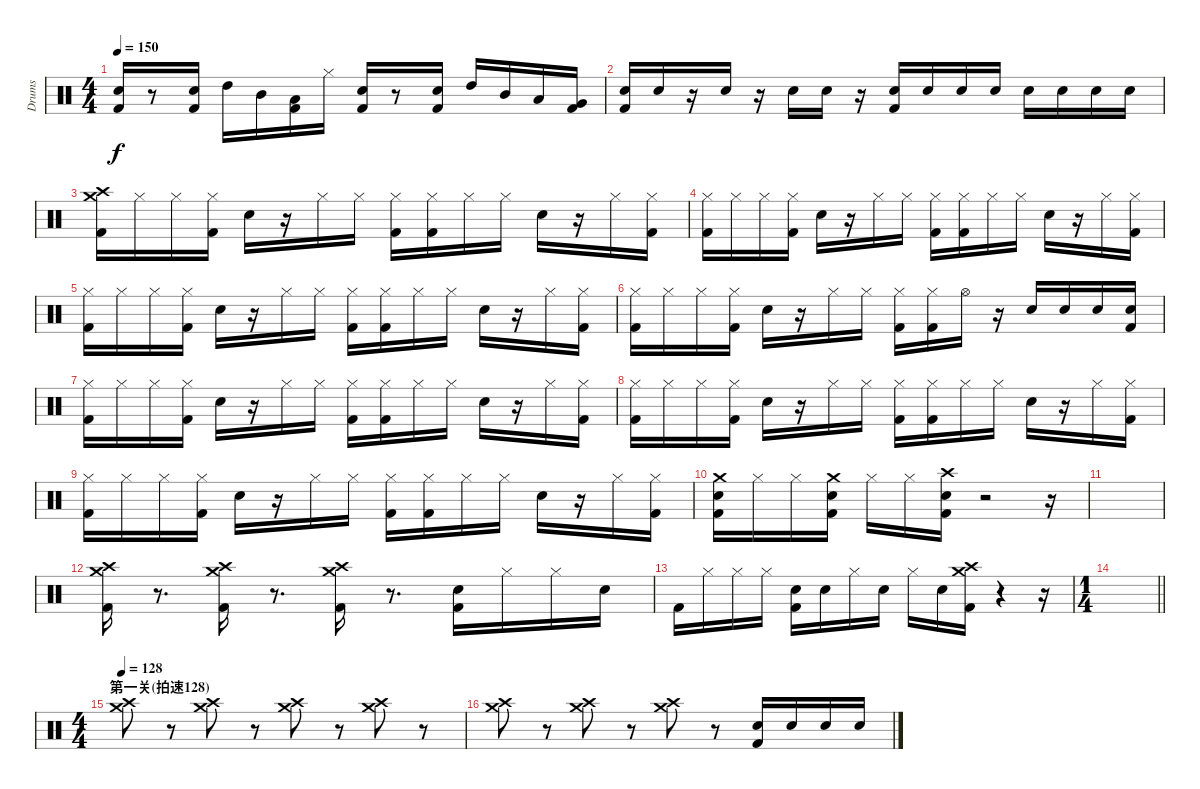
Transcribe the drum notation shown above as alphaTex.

\track ("Drums" "Drums") {instrument percussion}
\staff {score}
\articulation defaults
\ts (4 4)
\tempo 150
\clef neutral
\ks c
("Snare (hit) 2" "Kick (hit) 2").16{dy f} r.8 ("Snare (hit) 2" "Kick (hit) 2").16 "High Tom (hit)".16 "Mid Tom (hit)".16 ("Low Tom (hit)" "Kick (hit) 2").16 "Hi-Hat (closed)".16 ("Snare (hit) 2" "Kick (hit) 2").16 r.8 ("Snare (hit) 2" "Kick (hit) 2").16 "High Tom (hit)".16 "Mid Tom (hit)".16 "Low Tom (hit)".16 ("Very Low Tom (hit)" "Kick (hit) 2").16 |
("Snare (hit) 2" "Kick (hit) 2").16 "Snare (hit) 2".16 r.16 "Snare (hit) 2".16 r.16 "Snare (hit) 2".16 "Snare (hit) 2".16 r.16 ("Snare (hit) 2" "Kick (hit) 2").16 "Snare (hit) 2".16 "Snare (hit) 2".16 "Snare (hit) 2".16 "Snare (hit) 2".16 "Snare (hit) 2".16 "Snare (hit) 2".16 "Snare (hit) 2".16 |
("Crash medium (hit)" "Crash high (hit)" "Kick (hit) 2").16 "Hi-Hat (closed)".16 "Hi-Hat (closed)".16 ("Hi-Hat (closed)" "Kick (hit) 2").16 "Snare (hit) 2".16 r.16 "Hi-Hat (closed)".16 "Hi-Hat (closed)".16 ("Hi-Hat (closed)" "Kick (hit) 2").16 ("Hi-Hat (closed)" "Kick (hit) 2").16 "Hi-Hat (closed)".16 "Hi-Hat (closed)".16 "Snare (hit) 2".16 r.16 "Hi-Hat (closed)".16 ("Hi-Hat (closed)" "Kick (hit) 2").16 |
("Hi-Hat (closed)" "Kick (hit) 2").16 "Hi-Hat (closed)".16 "Hi-Hat (closed)".16 ("Hi-Hat (closed)" "Kick (hit) 2").16 "Snare (hit) 2".16 r.16 "Hi-Hat (closed)".16 "Hi-Hat (closed)".16 ("Hi-Hat (closed)" "Kick (hit) 2").16 ("Hi-Hat (closed)" "Kick (hit) 2").16 "Hi-Hat (closed)".16 "Hi-Hat (closed)".16 "Snare (hit) 2".16 r.16 "Hi-Hat (closed)".16 ("Hi-Hat (closed)" "Kick (hit) 2").16 |
("Hi-Hat (closed)" "Kick (hit) 2").16 "Hi-Hat (closed)".16 "Hi-Hat (closed)".16 ("Hi-Hat (closed)" "Kick (hit) 2").16 "Snare (hit) 2".16 r.16 "Hi-Hat (closed)".16 "Hi-Hat (closed)".16 ("Hi-Hat (closed)" "Kick (hit) 2").16 ("Hi-Hat (closed)" "Kick (hit) 2").16 "Hi-Hat (closed)".16 "Hi-Hat (closed)".16 "Snare (hit) 2".16 r.16 "Hi-Hat (closed)".16 ("Hi-Hat (closed)" "Kick (hit) 2").16 |
("Hi-Hat (closed)" "Kick (hit) 2").16 "Hi-Hat (closed)".16 "Hi-Hat (closed)".16 ("Hi-Hat (closed)" "Kick (hit) 2").16 "Snare (hit) 2".16 r.16 "Hi-Hat (closed)".16 "Hi-Hat (closed)".16 ("Hi-Hat (closed)" "Kick (hit) 2").16 ("Hi-Hat (closed)" "Kick (hit) 2").16 "Hi-Hat (open)".16 r.16 "Snare (hit) 2".16 "Snare (hit) 2".16 "Snare (hit) 2".16 ("Snare (hit) 2" "Kick (hit) 2").16 |
("Hi-Hat (closed)" "Kick (hit) 2").16 "Hi-Hat (closed)".16 "Hi-Hat (closed)".16 ("Hi-Hat (closed)" "Kick (hit) 2").16 "Snare (hit) 2".16 r.16 "Hi-Hat (closed)".16 "Hi-Hat (closed)".16 ("Hi-Hat (closed)" "Kick (hit) 2").16 ("Hi-Hat (closed)" "Kick (hit) 2").16 "Hi-Hat (closed)".16 "Hi-Hat (closed)".16 "Snare (hit) 2".16 r.16 "Hi-Hat (closed)".16 ("Hi-Hat (closed)" "Kick (hit) 2").16 |
("Hi-Hat (closed)" "Kick (hit) 2").16 "Hi-Hat (closed)".16 "Hi-Hat (closed)".16 ("Hi-Hat (closed)" "Kick (hit) 2").16 "Snare (hit) 2".16 r.16 "Hi-Hat (closed)".16 "Hi-Hat (closed)".16 ("Hi-Hat (closed)" "Kick (hit) 2").16 ("Hi-Hat (closed)" "Kick (hit) 2").16 "Hi-Hat (closed)".16 "Hi-Hat (closed)".16 "Snare (hit) 2".16 r.16 "Hi-Hat (closed)".16 ("Hi-Hat (closed)" "Kick (hit) 2").16 |
("Hi-Hat (closed)" "Kick (hit) 2").16 "Hi-Hat (closed)".16 "Hi-Hat (closed)".16 ("Hi-Hat (closed)" "Kick (hit) 2").16 "Snare (hit) 2".16 r.16 "Hi-Hat (closed)".16 "Hi-Hat (closed)".16 ("Hi-Hat (closed)" "Kick (hit) 2").16 ("Hi-Hat (closed)" "Kick (hit) 2").16 "Hi-Hat (closed)".16 "Hi-Hat (closed)".16 "Snare (hit) 2".16 r.16 "Hi-Hat (closed)".16 ("Hi-Hat (closed)" "Kick (hit) 2").16 |
("Crash medium (hit)" "Snare (hit) 2" "Kick (hit) 2").16 "Hi-Hat (closed)".16 "Hi-Hat (closed)".16 ("Crash medium (hit)" "Snare (hit) 2" "Kick (hit) 2").16 "Hi-Hat (closed)".16 "Hi-Hat (closed)".16 ("Crash high (hit)" "Snare (hit) 2" "Kick (hit) 2").16 r.2 r.16 |
|
("Crash medium (hit)" "Crash high (hit)" "Kick (hit) 2").16 r.8{d} ("Crash medium (hit)" "Crash high (hit)" "Kick (hit) 2").16 r.8{d} ("Crash medium (hit)" "Crash high (hit)" "Kick (hit) 2").16 r.8{d} ("Snare (hit) 2" "Kick (hit) 2").16 "Hi-Hat (closed)".16 "Hi-Hat (closed)".16 "Snare (hit) 2".16 |
"Kick (hit) 2".16 "Hi-Hat (closed)".16 "Hi-Hat (closed)".16 "Hi-Hat (closed)".16 ("Snare (hit) 2" "Kick (hit) 2").16 "Snare (hit) 2".16 "Hi-Hat (closed)".16 "Snare (hit) 2".16 "Hi-Hat (closed)".16 "Snare (hit) 2".16 ("Crash medium (hit)" "Crash high (hit)" "Kick (hit) 2").16 r.4 r.16 |
\ts (1 4)
\barLineRight lightlight
|
\ts (4 4)
\section ("" "第一关(拍速128)")
\tempo 128
("Crash medium (hit)" "Crash high (hit)").8 r.8 ("Crash medium (hit)" "Crash high (hit)").8 r.8 ("Crash medium (hit)" "Crash high (hit)").8 r.8 ("Crash medium (hit)" "Crash high (hit)").8 r.8 |
("Crash medium (hit)" "Crash high (hit)").8 r.8 ("Crash medium (hit)" "Crash high (hit)").8 r.8 ("Crash medium (hit)" "Crash high (hit)").8 r.8 ("Snare (hit) 2" "Kick (hit) 2").16 "Snare (hit) 2".16 "Snare (hit) 2".16 "Snare (hit) 2".16
